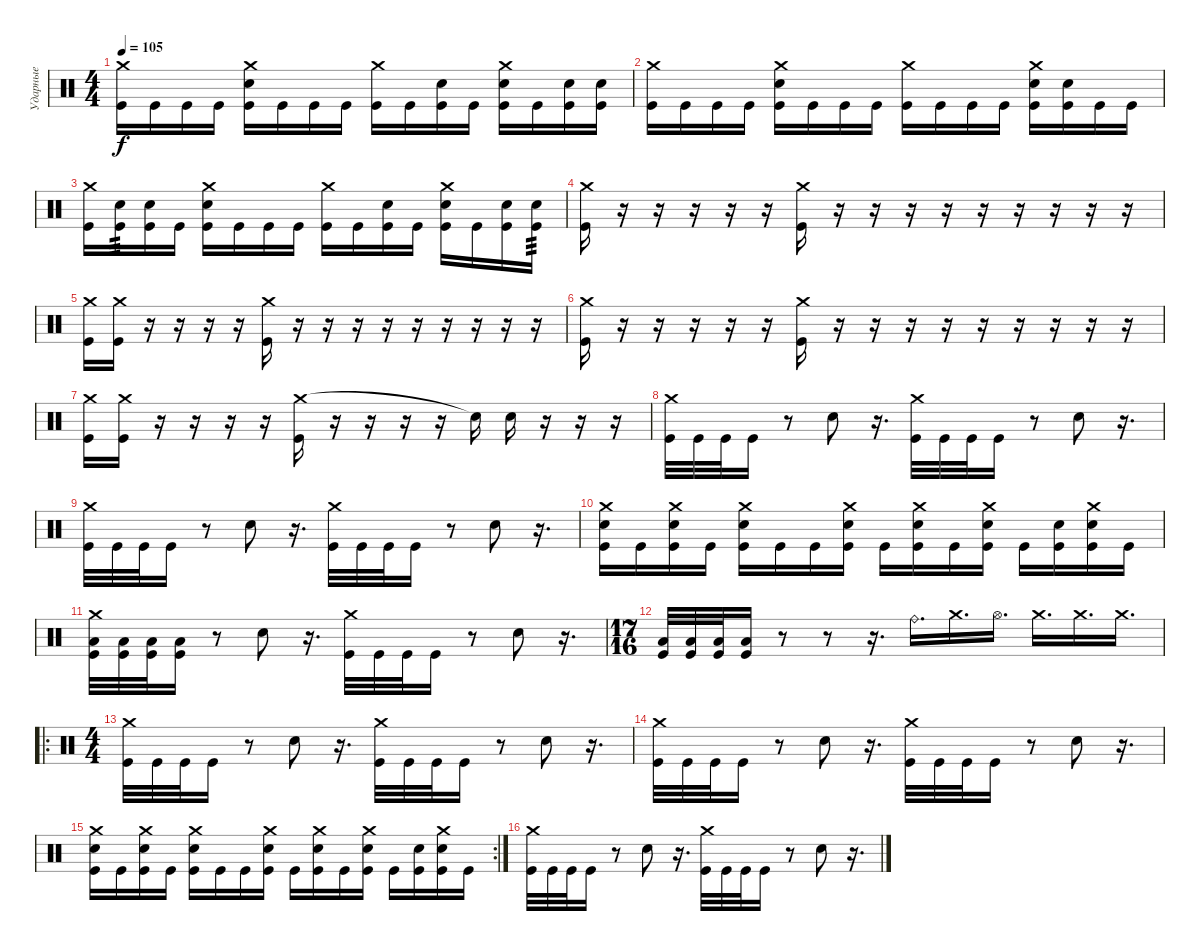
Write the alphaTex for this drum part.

\track ("Ударные" "Ударные") {instrument percussion}
\staff {score}
\articulation defaults
\ts (4 4)
\tempo 105
\clef neutral
\ks c
("Crash medium (hit)" "Kick (hit)").16{dy f} "Kick (hit)".16 "Kick (hit)".16 "Kick (hit)".16 ("Crash medium (hit)" "Electric Snare (hit)" "Kick (hit)").16 "Kick (hit)".16 "Kick (hit)".16 "Kick (hit)".16 ("Crash medium (hit)" "Kick (hit)").16 "Kick (hit)".16 ("Electric Snare (hit)" "Kick (hit)").16 "Kick (hit)".16 ("Crash medium (hit)" "Electric Snare (hit)" "Kick (hit)").16 "Kick (hit)".16 ("Electric Snare (hit)" "Kick (hit)").16 ("Electric Snare (hit)" "Kick (hit)").16 |
("Crash medium (hit)" "Kick (hit)").16 "Kick (hit)".16 "Kick (hit)".16 "Kick (hit)".16 ("Crash medium (hit)" "Electric Snare (hit)" "Kick (hit)").16 "Kick (hit)".16 "Kick (hit)".16 "Kick (hit)".16 ("Crash medium (hit)" "Kick (hit)").16 "Kick (hit)".16 "Kick (hit)".16 "Kick (hit)".16 ("Crash medium (hit)" "Electric Snare (hit)" "Kick (hit)").16 ("Electric Snare (hit)" "Kick (hit)").16 "Kick (hit)".16 "Kick (hit)".16 |
("Crash medium (hit)" "Kick (hit)").16 ("Electric Snare (hit)" "Kick (hit)").16{tp 3} ("Electric Snare (hit)" "Kick (hit)").16 "Kick (hit)".16 ("Crash medium (hit)" "Electric Snare (hit)" "Kick (hit)").16 "Kick (hit)".16 "Kick (hit)".16 "Kick (hit)".16 ("Crash medium (hit)" "Kick (hit)").16 "Kick (hit)".16 ("Electric Snare (hit)" "Kick (hit)").16 "Kick (hit)".16 ("Crash medium (hit)" "Electric Snare (hit)" "Kick (hit)").16 "Kick (hit)".16 ("Electric Snare (hit)" "Kick (hit)").16 ("Electric Snare (hit)" "Kick (hit)").16{tp 3} |
("Crash medium (hit)" "Kick (hit)").16 r.16 r.16 r.16 r.16 r.16 ("Crash medium (hit)" "Kick (hit)").16 r.16 r.16 r.16 r.16 r.16 r.16 r.16 r.16 r.16 |
("Crash medium (hit)" "Kick (hit)").16 ("Crash medium (hit)" "Kick (hit)").16 r.16 r.16 r.16 r.16 ("Crash medium (hit)" "Kick (hit)").16 r.16 r.16 r.16 r.16 r.16 r.16 r.16 r.16 r.16 |
("Crash medium (hit)" "Kick (hit)").16 r.16 r.16 r.16 r.16 r.16 ("Crash medium (hit)" "Kick (hit)").16 r.16 r.16 r.16 r.16 r.16 r.16 r.16 r.16 r.16 |
("Crash medium (hit)" "Kick (hit)").16 ("Crash medium (hit)" "Kick (hit)").16 r.16 r.16 r.16 r.16 ("Crash medium (hit)" "Kick (hit)").16 r.16 r.16 r.16 r.16 "Snare (hit)"{t}.16 "Electric Snare (hit)".16 r.16 r.16 r.16 |
("Crash medium (hit)" "Kick (hit)").32 "Kick (hit)".32 "Kick (hit)".32 "Kick (hit)".16 r.8 "Electric Snare (hit)".8 r.16{d} ("Crash medium (hit)" "Kick (hit)").32 "Kick (hit)".32 "Kick (hit)".32 "Kick (hit)".16 r.8 "Electric Snare (hit)".8 r.16{d} |
("Crash medium (hit)" "Kick (hit)").32 "Kick (hit)".32 "Kick (hit)".32 "Kick (hit)".16 r.8 "Electric Snare (hit)".8 r.16{d} ("Crash medium (hit)" "Kick (hit)").32 "Kick (hit)".32 "Kick (hit)".32 "Kick (hit)".16 r.8 "Electric Snare (hit)".8 r.16{d} |
("Crash medium (hit)" "Electric Snare (hit)" "Kick (hit)").16 "Kick (hit)".16 ("Crash medium (hit)" "Electric Snare (hit)" "Kick (hit)").16 "Kick (hit)".16 ("Crash medium (hit)" "Electric Snare (hit)" "Kick (hit)").16 "Kick (hit)".16 "Kick (hit)".16 ("Crash medium (hit)" "Electric Snare (hit)" "Kick (hit)").16 "Kick (hit)".16 ("Crash medium (hit)" "Electric Snare (hit)" "Kick (hit)").16 "Kick (hit)".16 ("Crash medium (hit)" "Electric Snare (hit)" "Kick (hit)").16 "Kick (hit)".16 ("Electric Snare (hit)" "Kick (hit)").16 ("Crash medium (hit)" "Electric Snare (hit)" "Kick (hit)").16 "Kick (hit)".16 |
("Crash medium (hit)" "Low Floor Tom (hit)" "Kick (hit)").32 ("Low Floor Tom (hit)" "Kick (hit)").32 ("Low Floor Tom (hit)" "Kick (hit)").32 ("Low Floor Tom (hit)" "Kick (hit)").16 r.8 "Electric Snare (hit)".8 r.16{d} ("Crash medium (hit)" "Kick (hit)").32 "Kick (hit)".32 "Kick (hit)".32 "Kick (hit)".16 r.8 "Electric Snare (hit)".8 r.16{d} |
\ts (17 16)
("Low Floor Tom (hit)" "Kick (hit)").32 ("Low Floor Tom (hit)" "Kick (hit)").32 ("Low Floor Tom (hit)" "Kick (hit)").32 ("Low Floor Tom (hit)" "Kick (hit)").16 r.8 r.8 r.16{d} "Ride (bell)".16{d} "Crash medium (hit)".16{d} "Hi-Hat (open)".16{d} "Crash medium (hit)".16{d} "Crash medium (hit)".16{d} "Crash medium (hit)".16{d} |
\ro
\ts (4 4)
("Crash medium (hit)" "Kick (hit)").32 "Kick (hit)".32 "Kick (hit)".32 "Kick (hit)".16 r.8 "Electric Snare (hit)".8 r.16{d} ("Crash medium (hit)" "Kick (hit)").32 "Kick (hit)".32 "Kick (hit)".32 "Kick (hit)".16 r.8 "Electric Snare (hit)".8 r.16{d} |
("Crash medium (hit)" "Kick (hit)").32 "Kick (hit)".32 "Kick (hit)".32 "Kick (hit)".16 r.8 "Electric Snare (hit)".8 r.16{d} ("Crash medium (hit)" "Kick (hit)").32 "Kick (hit)".32 "Kick (hit)".32 "Kick (hit)".16 r.8 "Electric Snare (hit)".8 r.16{d} |
\rc 2
("Crash medium (hit)" "Electric Snare (hit)" "Kick (hit)").16 "Kick (hit)".16 ("Crash medium (hit)" "Electric Snare (hit)" "Kick (hit)").16 "Kick (hit)".16 ("Crash medium (hit)" "Electric Snare (hit)" "Kick (hit)").16 "Kick (hit)".16 "Kick (hit)".16 ("Crash medium (hit)" "Electric Snare (hit)" "Kick (hit)").16 "Kick (hit)".16 ("Crash medium (hit)" "Electric Snare (hit)" "Kick (hit)").16 "Kick (hit)".16 ("Crash medium (hit)" "Electric Snare (hit)" "Kick (hit)").16 "Kick (hit)".16 ("Electric Snare (hit)" "Kick (hit)").16 ("Crash medium (hit)" "Electric Snare (hit)" "Kick (hit)").16 "Kick (hit)".16 |
("Crash medium (hit)" "Kick (hit)").32 "Kick (hit)".32 "Kick (hit)".32 "Kick (hit)".16 r.8 "Electric Snare (hit)".8 r.16{d} ("Crash medium (hit)" "Kick (hit)").32 "Kick (hit)".32 "Kick (hit)".32 "Kick (hit)".16 r.8 "Electric Snare (hit)".8 r.16{d}
